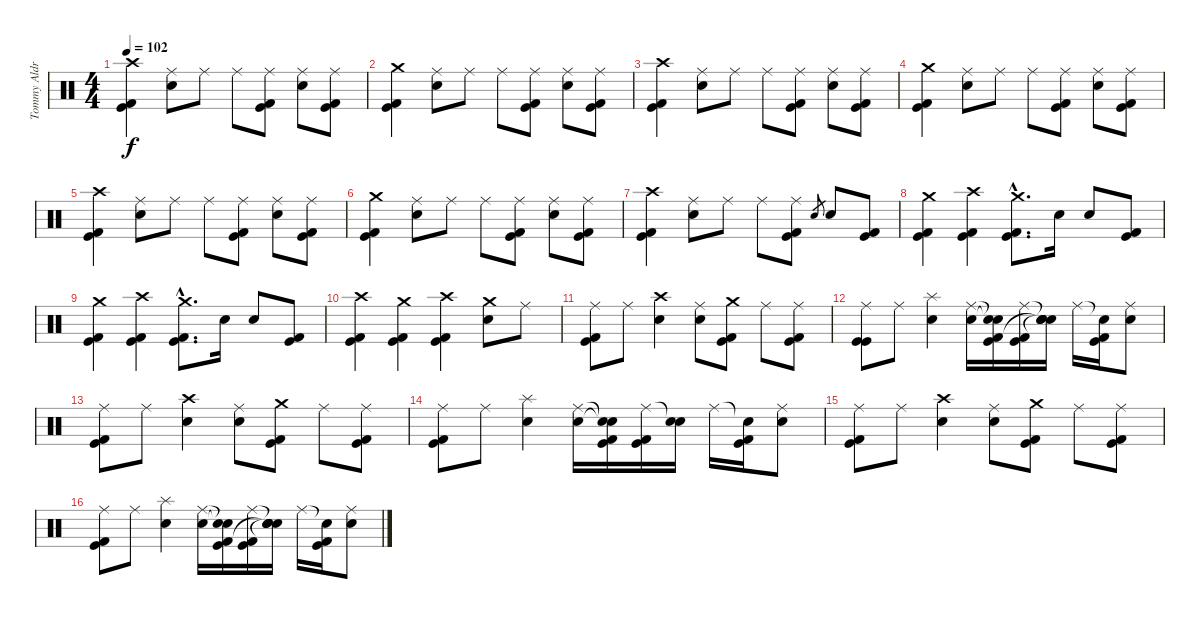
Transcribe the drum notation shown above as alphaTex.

\track ("Tommy Aldridge" "Tommy Aldr") {instrument percussion}
\staff {score}
\articulation defaults
\ts (4 4)
\tempo 102
\clef neutral
\ks c
("Crash high (hit)" "Kick (hit)" "Kick (hit) 2").4{dy f} ("Ride (middle)" "Electric Snare (hit)").8 "Ride (middle)".8 "Ride (middle)".8 ("Ride (middle)" "Kick (hit)" "Kick (hit) 2").8 ("Ride (middle)" "Electric Snare (hit)").8 ("Ride (middle)" "Kick (hit)" "Kick (hit) 2").8 |
("Crash medium (hit)" "Kick (hit)" "Kick (hit) 2").4 ("Ride (middle)" "Electric Snare (hit)").8 "Ride (middle)".8 "Ride (middle)".8 ("Ride (middle)" "Kick (hit)" "Kick (hit) 2").8 ("Ride (middle)" "Electric Snare (hit)").8 ("Ride (middle)" "Kick (hit)" "Kick (hit) 2").8 |
("Crash high (hit)" "Kick (hit)" "Kick (hit) 2").4 ("Ride (middle)" "Electric Snare (hit)").8 "Ride (middle)".8 "Ride (middle)".8 ("Ride (middle)" "Kick (hit)" "Kick (hit) 2").8 ("Ride (middle)" "Electric Snare (hit)").8 ("Ride (middle)" "Kick (hit)" "Kick (hit) 2").8 |
("Crash medium (hit)" "Kick (hit)" "Kick (hit) 2").4 ("Ride (middle)" "Electric Snare (hit)").8 "Ride (middle)".8 "Ride (middle)".8 ("Ride (middle)" "Kick (hit)" "Kick (hit) 2").8 ("Ride (middle)" "Electric Snare (hit)").8 ("Ride (middle)" "Kick (hit)" "Kick (hit) 2").8 |
("Crash high (hit)" "Kick (hit)" "Kick (hit) 2").4 ("Ride (middle)" "Electric Snare (hit)").8 "Ride (middle)".8 "Ride (middle)".8 ("Ride (middle)" "Kick (hit)" "Kick (hit) 2").8 ("Ride (middle)" "Electric Snare (hit)").8 ("Ride (middle)" "Kick (hit)" "Kick (hit) 2").8 |
("Crash medium (hit)" "Kick (hit)" "Kick (hit) 2").4 ("Ride (middle)" "Electric Snare (hit)").8 "Ride (middle)".8 "Ride (middle)".8 ("Ride (middle)" "Kick (hit)" "Kick (hit) 2").8 ("Ride (middle)" "Electric Snare (hit)").8 ("Ride (middle)" "Kick (hit)" "Kick (hit) 2").8 |
("Crash high (hit)" "Kick (hit)" "Kick (hit) 2").4 ("Ride (middle)" "Electric Snare (hit)").8 "Ride (middle)".8 "Ride (middle)".8 ("Ride (middle)" "Kick (hit)" "Kick (hit) 2").8 "Electric Snare (hit)".8{gr} "Electric Snare (hit)".8 ("Kick (hit)" "Kick (hit) 2").8 |
("Crash medium (hit)" "Kick (hit)" "Kick (hit) 2").4 ("Crash high (hit)" "Kick (hit)" "Kick (hit) 2").4 ("Crash medium (hit)"{hac} "Kick (hit)"{hac} "Kick (hit) 2"{hac}).8{d} "Electric Snare (hit)".16 "Electric Snare (hit)".8 ("Kick (hit)" "Kick (hit) 2").8 |
("Crash medium (hit)" "Kick (hit)" "Kick (hit) 2").4 ("Crash high (hit)" "Kick (hit)" "Kick (hit) 2").4 ("Crash medium (hit)"{hac} "Kick (hit)"{hac} "Kick (hit) 2"{hac}).8{d} "Electric Snare (hit)".16 "Electric Snare (hit)".8 ("Kick (hit)" "Kick (hit) 2").8 |
("Crash high (hit)" "Kick (hit)" "Kick (hit) 2").4 ("Crash medium (hit)" "Kick (hit)" "Kick (hit) 2").4 ("Crash high (hit)" "Kick (hit)" "Kick (hit) 2").4 ("Crash medium (hit)" "Electric Snare (hit)").8 "Ride (middle)".8 |
("Ride (middle)" "Kick (hit)" "Kick (hit) 2").8 "Ride (middle)".8 ("Crash high (hit)" "Electric Snare (hit)").4 ("Ride (middle)" "Electric Snare (hit)").8 ("Crash medium (hit)" "Kick (hit)" "Kick (hit) 2").8 "Ride (middle)".8 ("Ride (middle)" "Kick (hit)" "Kick (hit) 2").8 |
("Ride (middle)" "Kick (hit)" "Kick (hit)").8 "Ride (middle)".8 ("Splash (hit)" "Electric Snare (hit)").4 ("Ride (middle)" "Electric Snare (hit)").16 ("Snare (hit)"{t} "Snare (hit)"{t} "Kick (hit)" "Kick (hit) 2").16 ("Ride (middle)" "Kick (hit)" "Kick (hit) 2").16 ("Snare (hit)"{t} "Electric Snare (hit)" "Snare (hit)"{t} "Snare (hit)"{t}).16 "Ride (middle)".16 ("Snare (hit)"{t} "Kick (hit)" "Kick (hit) 2").16 ("Ride (middle)" "Electric Snare (hit)").8 |
("Ride (middle)" "Kick (hit)" "Kick (hit) 2").8 "Ride (middle)".8 ("Crash high (hit)" "Electric Snare (hit)").4 ("Ride (middle)" "Electric Snare (hit)").8 ("Crash medium (hit)" "Kick (hit)" "Kick (hit) 2").8 "Ride (middle)".8 ("Ride (middle)" "Kick (hit)" "Kick (hit) 2").8 |
("Ride (middle)" "Kick (hit)" "Kick (hit) 2").8 "Ride (middle)".8 ("Splash (hit)" "Electric Snare (hit)").4 ("Ride (middle)" "Electric Snare (hit)").16 ("Snare (hit)"{t} "Snare (hit)"{t} "Kick (hit)" "Kick (hit) 2").16 ("Ride (middle)" "Kick (hit)" "Kick (hit) 2").16 ("Snare (hit)"{t} "Electric Snare (hit)").16 "Ride (middle)".16 ("Snare (hit)"{t} "Kick (hit)" "Kick (hit) 2").16 ("Ride (middle)" "Electric Snare (hit)").8 |
("Ride (middle)" "Kick (hit)" "Kick (hit) 2").8 "Ride (middle)".8 ("Crash high (hit)" "Electric Snare (hit)").4 ("Ride (middle)" "Electric Snare (hit)").8 ("Crash medium (hit)" "Kick (hit)" "Kick (hit) 2").8 "Ride (middle)".8 ("Ride (middle)" "Kick (hit)" "Kick (hit) 2").8 |
("Ride (middle)" "Kick (hit)" "Kick (hit) 2").8 "Ride (middle)".8 ("Splash (hit)" "Electric Snare (hit)").4 ("Ride (middle)" "Electric Snare (hit)").16 ("Snare (hit)"{t} "Snare (hit)"{t} "Kick (hit)" "Kick (hit) 2").16 ("Ride (middle)" "Kick (hit)" "Kick (hit) 2").16 ("Snare (hit)"{t} "Electric Snare (hit)" "Snare (hit)"{t} "Snare (hit)"{t}).16 "Ride (middle)".16 ("Snare (hit)"{t} "Kick (hit)" "Kick (hit) 2").16 ("Ride (middle)" "Electric Snare (hit)").8
